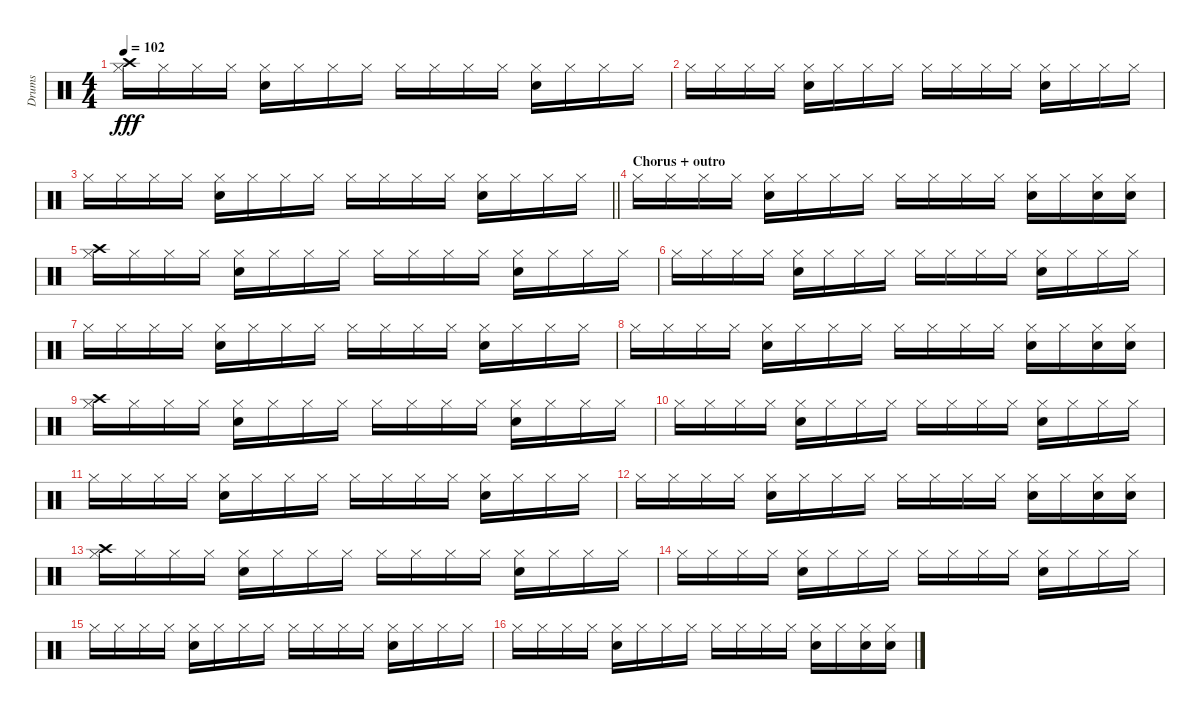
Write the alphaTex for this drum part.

\track ("Drums" "Drums") {instrument percussion}
\staff {score}
\articulation defaults
\ts (4 4)
\tempo 102
\clef neutral
\ks c
("Hi-Hat (closed)" "Crash high (hit)").16{dy fff} "Hi-Hat (closed)".16 "Hi-Hat (closed)".16 "Hi-Hat (closed)".16 ("Hi-Hat (closed)" "Hand Clap (hit)").16 "Hi-Hat (closed)".16 "Hi-Hat (closed)".16 "Hi-Hat (closed)".16 "Hi-Hat (closed)".16 "Hi-Hat (closed)".16 "Hi-Hat (closed)".16 "Hi-Hat (closed)".16 ("Hi-Hat (closed)" "Hand Clap (hit)").16 "Hi-Hat (closed)".16 "Hi-Hat (closed)".16 "Hi-Hat (closed)".16 |
"Hi-Hat (closed)".16 "Hi-Hat (closed)".16 "Hi-Hat (closed)".16 "Hi-Hat (closed)".16 ("Hi-Hat (closed)" "Hand Clap (hit)").16 "Hi-Hat (closed)".16 "Hi-Hat (closed)".16 "Hi-Hat (closed)".16 "Hi-Hat (closed)".16 "Hi-Hat (closed)".16 "Hi-Hat (closed)".16 "Hi-Hat (closed)".16 ("Hi-Hat (closed)" "Hand Clap (hit)").16 "Hi-Hat (closed)".16 "Hi-Hat (closed)".16 "Hi-Hat (closed)".16 |
\barLineRight lightlight "Hi-Hat (closed)".16 "Hi-Hat (closed)".16 "Hi-Hat (closed)".16 "Hi-Hat (closed)".16
("Hi-Hat (closed)" "Hand Clap (hit)").16 "Hi-Hat (closed)".16 "Hi-Hat (closed)".16 "Hi-Hat (closed)".16 "Hi-Hat (closed)".16 "Hi-Hat (closed)".16 "Hi-Hat (closed)".16 "Hi-Hat (closed)".16 ("Hi-Hat (closed)" "Hand Clap (hit)").16 "Hi-Hat (closed)".16 "Hi-Hat (closed)".16 "Hi-Hat (closed)".16 |
\section ("" "Chorus + outro")
"Hi-Hat (closed)".16 "Hi-Hat (closed)".16 "Hi-Hat (closed)".16 "Hi-Hat (closed)".16 ("Hi-Hat (closed)" "Hand Clap (hit)").16 "Hi-Hat (closed)".16 "Hi-Hat (closed)".16 "Hi-Hat (closed)".16 "Hi-Hat (closed)".16 "Hi-Hat (closed)".16 "Hi-Hat (closed)".16 "Hi-Hat (closed)".16 ("Hi-Hat (closed)" "Hand Clap (hit)").16 "Hi-Hat (closed)".16 ("Hi-Hat (closed)" "Hand Clap (hit)").16 ("Hi-Hat (closed)" "Hand Clap (hit)").16 |
("Hi-Hat (closed)" "Crash high (hit)").16 "Hi-Hat (closed)".16 "Hi-Hat (closed)".16 "Hi-Hat (closed)".16 ("Hi-Hat (closed)" "Hand Clap (hit)").16 "Hi-Hat (closed)".16 "Hi-Hat (closed)".16 "Hi-Hat (closed)".16 "Hi-Hat (closed)".16 "Hi-Hat (closed)".16 "Hi-Hat (closed)".16 "Hi-Hat (closed)".16 ("Hi-Hat (closed)" "Hand Clap (hit)").16 "Hi-Hat (closed)".16 "Hi-Hat (closed)".16 "Hi-Hat (closed)".16 |
"Hi-Hat (closed)".16 "Hi-Hat (closed)".16 "Hi-Hat (closed)".16 "Hi-Hat (closed)".16 ("Hi-Hat (closed)" "Hand Clap (hit)").16 "Hi-Hat (closed)".16 "Hi-Hat (closed)".16 "Hi-Hat (closed)".16 "Hi-Hat (closed)".16 "Hi-Hat (closed)".16 "Hi-Hat (closed)".16 "Hi-Hat (closed)".16 ("Hi-Hat (closed)" "Hand Clap (hit)").16 "Hi-Hat (closed)".16 "Hi-Hat (closed)".16 "Hi-Hat (closed)".16 |
"Hi-Hat (closed)".16 "Hi-Hat (closed)".16 "Hi-Hat (closed)".16 "Hi-Hat (closed)".16 ("Hi-Hat (closed)" "Hand Clap (hit)").16 "Hi-Hat (closed)".16 "Hi-Hat (closed)".16 "Hi-Hat (closed)".16 "Hi-Hat (closed)".16 "Hi-Hat (closed)".16 "Hi-Hat (closed)".16 "Hi-Hat (closed)".16 ("Hi-Hat (closed)" "Hand Clap (hit)").16 "Hi-Hat (closed)".16 "Hi-Hat (closed)".16 "Hi-Hat (closed)".16 |
"Hi-Hat (closed)".16 "Hi-Hat (closed)".16 "Hi-Hat (closed)".16 "Hi-Hat (closed)".16 ("Hi-Hat (closed)" "Hand Clap (hit)").16 "Hi-Hat (closed)".16 "Hi-Hat (closed)".16 "Hi-Hat (closed)".16 "Hi-Hat (closed)".16 "Hi-Hat (closed)".16 "Hi-Hat (closed)".16 "Hi-Hat (closed)".16 ("Hi-Hat (closed)" "Hand Clap (hit)").16 "Hi-Hat (closed)".16 ("Hi-Hat (closed)" "Hand Clap (hit)").16 ("Hi-Hat (closed)" "Hand Clap (hit)").16 |
("Hi-Hat (closed)" "Crash high (hit)").16 "Hi-Hat (closed)".16 "Hi-Hat (closed)".16 "Hi-Hat (closed)".16 ("Hi-Hat (closed)" "Hand Clap (hit)").16 "Hi-Hat (closed)".16 "Hi-Hat (closed)".16 "Hi-Hat (closed)".16 "Hi-Hat (closed)".16 "Hi-Hat (closed)".16 "Hi-Hat (closed)".16 "Hi-Hat (closed)".16 ("Hi-Hat (closed)" "Hand Clap (hit)").16 "Hi-Hat (closed)".16 "Hi-Hat (closed)".16 "Hi-Hat (closed)".16 |
"Hi-Hat (closed)".16 "Hi-Hat (closed)".16 "Hi-Hat (closed)".16 "Hi-Hat (closed)".16 ("Hi-Hat (closed)" "Hand Clap (hit)").16 "Hi-Hat (closed)".16 "Hi-Hat (closed)".16 "Hi-Hat (closed)".16 "Hi-Hat (closed)".16 "Hi-Hat (closed)".16 "Hi-Hat (closed)".16 "Hi-Hat (closed)".16 ("Hi-Hat (closed)" "Hand Clap (hit)").16 "Hi-Hat (closed)".16 "Hi-Hat (closed)".16 "Hi-Hat (closed)".16 |
"Hi-Hat (closed)".16 "Hi-Hat (closed)".16 "Hi-Hat (closed)".16 "Hi-Hat (closed)".16 ("Hi-Hat (closed)" "Hand Clap (hit)").16 "Hi-Hat (closed)".16 "Hi-Hat (closed)".16 "Hi-Hat (closed)".16 "Hi-Hat (closed)".16 "Hi-Hat (closed)".16 "Hi-Hat (closed)".16 "Hi-Hat (closed)".16 ("Hi-Hat (closed)" "Hand Clap (hit)").16 "Hi-Hat (closed)".16 "Hi-Hat (closed)".16 "Hi-Hat (closed)".16 |
"Hi-Hat (closed)".16 "Hi-Hat (closed)".16 "Hi-Hat (closed)".16 "Hi-Hat (closed)".16 ("Hi-Hat (closed)" "Hand Clap (hit)").16 "Hi-Hat (closed)".16 "Hi-Hat (closed)".16 "Hi-Hat (closed)".16 "Hi-Hat (closed)".16 "Hi-Hat (closed)".16 "Hi-Hat (closed)".16 "Hi-Hat (closed)".16 ("Hi-Hat (closed)" "Hand Clap (hit)").16 "Hi-Hat (closed)".16 ("Hi-Hat (closed)" "Hand Clap (hit)").16 ("Hi-Hat (closed)" "Hand Clap (hit)").16 |
("Hi-Hat (closed)" "Crash high (hit)").16 "Hi-Hat (closed)".16 "Hi-Hat (closed)".16 "Hi-Hat (closed)".16 ("Hi-Hat (closed)" "Hand Clap (hit)").16 "Hi-Hat (closed)".16 "Hi-Hat (closed)".16 "Hi-Hat (closed)".16 "Hi-Hat (closed)".16 "Hi-Hat (closed)".16 "Hi-Hat (closed)".16 "Hi-Hat (closed)".16 ("Hi-Hat (closed)" "Hand Clap (hit)").16 "Hi-Hat (closed)".16 "Hi-Hat (closed)".16 "Hi-Hat (closed)".16 |
"Hi-Hat (closed)".16 "Hi-Hat (closed)".16 "Hi-Hat (closed)".16 "Hi-Hat (closed)".16 ("Hi-Hat (closed)" "Hand Clap (hit)").16 "Hi-Hat (closed)".16 "Hi-Hat (closed)".16 "Hi-Hat (closed)".16 "Hi-Hat (closed)".16 "Hi-Hat (closed)".16 "Hi-Hat (closed)".16 "Hi-Hat (closed)".16 ("Hi-Hat (closed)" "Hand Clap (hit)").16 "Hi-Hat (closed)".16 "Hi-Hat (closed)".16 "Hi-Hat (closed)".16 |
"Hi-Hat (closed)".16 "Hi-Hat (closed)".16 "Hi-Hat (closed)".16 "Hi-Hat (closed)".16 ("Hi-Hat (closed)" "Hand Clap (hit)").16 "Hi-Hat (closed)".16 "Hi-Hat (closed)".16 "Hi-Hat (closed)".16 "Hi-Hat (closed)".16 "Hi-Hat (closed)".16 "Hi-Hat (closed)".16 "Hi-Hat (closed)".16 ("Hi-Hat (closed)" "Hand Clap (hit)").16 "Hi-Hat (closed)".16 "Hi-Hat (closed)".16 "Hi-Hat (closed)".16 |
"Hi-Hat (closed)".16 "Hi-Hat (closed)".16 "Hi-Hat (closed)".16 "Hi-Hat (closed)".16 ("Hi-Hat (closed)" "Hand Clap (hit)").16 "Hi-Hat (closed)".16 "Hi-Hat (closed)".16 "Hi-Hat (closed)".16 "Hi-Hat (closed)".16 "Hi-Hat (closed)".16 "Hi-Hat (closed)".16 "Hi-Hat (closed)".16 ("Hi-Hat (closed)" "Hand Clap (hit)").16 "Hi-Hat (closed)".16 ("Hi-Hat (closed)" "Hand Clap (hit)").16 ("Hi-Hat (closed)" "Hand Clap (hit)").16
